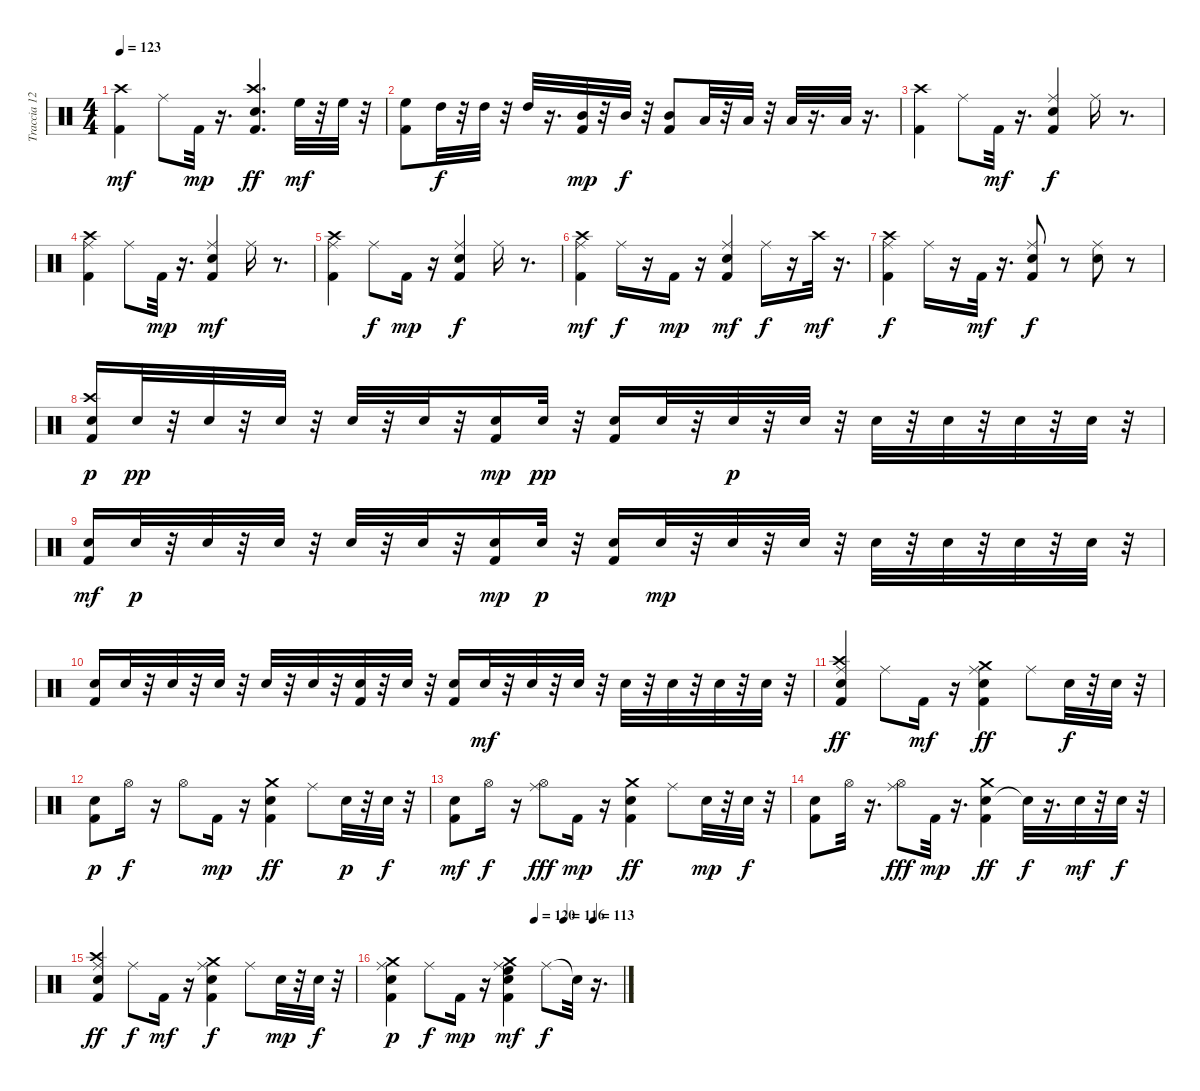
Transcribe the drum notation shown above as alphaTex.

\track ("Traccia 12-13-14-15-16-17-18" "Traccia 12") {instrument percussion}
\staff {score}
\articulation defaults
\ts (4 4)
\tempo 123
\clef neutral
\ks c
("Kick (hit) 2" "Crash high (hit)").4{dy mf} "Ride (middle)".8 "Kick (hit) 2".32{dy mp} r.16{d} ("Electric Snare (hit)" "Kick (hit) 2" "Crash high (hit)").4{d dy ff} "High Floor Tom (hit)".32{dy mf} r.32 "High Floor Tom (hit)".32 r.32 |
("High Floor Tom (hit)" "Kick (hit) 2").8 "High Tom (hit)".32{dy f} r.32 "High Tom (hit)".32 r.32 "High Tom (hit)".32 r.16{d} ("Mid Tom (hit)" "Kick (hit) 2").32{dy mp} r.32 "Mid Tom (hit)".32{dy f} r.32 ("Mid Tom (hit)" "Kick (hit) 2").8 "Low Tom (hit)".32 r.32 "Low Tom (hit)".32 r.32 "Low Tom (hit)".32 r.16{d} "Low Tom (hit)".32 r.16{d} |
("Kick (hit) 2" "Crash high (hit)").4 "Ride (middle)".8 "Kick (hit) 2".32{dy mf} r.16{d} ("Electric Snare (hit)" "Kick (hit) 2" "Ride (middle)").4{dy f} "Ride (middle)".16 r.8{d} |
("Kick (hit) 2" "Ride (middle)" "Crash high (hit)").4 "Ride (middle)".8 "Kick (hit) 2".32{dy mp} r.16{d} ("Electric Snare (hit)" "Kick (hit) 2" "Ride (middle)").4{dy mf} "Ride (middle)".16 r.8{d} |
("Kick (hit) 2" "Ride (middle)" "Crash high (hit)").4 "Ride (middle)".8{dy f} "Kick (hit) 2".16{dy mp} r.16 ("Electric Snare (hit)" "Kick (hit) 2" "Ride (middle)").4{dy f} "Ride (middle)".16 r.8{d} |
("Kick (hit) 2" "Ride (middle)" "Crash high (hit)").4{dy mf} "Ride (middle)".16{dy f} r.16 "Kick (hit) 2".16{dy mp} r.16 ("Electric Snare (hit)" "Kick (hit) 2" "Ride (middle)").4{dy mf} "Ride (middle)".16{dy f} r.16 "Crash high (hit)".32{dy mf} r.16{d} |
("Kick (hit) 2" "Ride (middle)" "Crash high (hit)").4{dy f} "Ride (middle)".16 r.16 "Kick (hit) 2".32{dy mf} r.16{d} ("Electric Snare (hit)" "Kick (hit) 2" "Ride (middle)").8{dy f} r.8 ("Electric Snare (hit)" "Ride (middle)").8 r.8 |
("Electric Snare (hit)" "Kick (hit) 2" "Crash high (hit)").16{dy p} "Electric Snare (hit)".32{dy pp} r.32 "Electric Snare (hit)".32 r.32 "Electric Snare (hit)".32 r.32 "Electric Snare (hit)".32 r.32 "Electric Snare (hit)".32 r.32 ("Electric Snare (hit)" "Kick (hit) 2").16{dy mp} "Electric Snare (hit)".32{dy pp} r.32 ("Electric Snare (hit)" "Kick (hit) 2").16 "Electric Snare (hit)".32 r.32 "Electric Snare (hit)".32{dy p} r.32 "Electric Snare (hit)".32 r.32 "Electric Snare (hit)".32 r.32 "Electric Snare (hit)".32 r.32 "Electric Snare (hit)".32 r.32 "Electric Snare (hit)".32 r.32 |
("Electric Snare (hit)" "Kick (hit) 2").16{dy mf} "Electric Snare (hit)".32{dy p} r.32 "Electric Snare (hit)".32 r.32 "Electric Snare (hit)".32 r.32 "Electric Snare (hit)".32 r.32 "Electric Snare (hit)".32 r.32 ("Electric Snare (hit)" "Kick (hit) 2").16{dy mp} "Electric Snare (hit)".32{dy p} r.32 ("Electric Snare (hit)" "Kick (hit) 2").16 "Electric Snare (hit)".32{dy mp} r.32 "Electric Snare (hit)".32 r.32 "Electric Snare (hit)".32 r.32 "Electric Snare (hit)".32 r.32 "Electric Snare (hit)".32 r.32 "Electric Snare (hit)".32 r.32 "Electric Snare (hit)".32 r.32 |
("Electric Snare (hit)" "Kick (hit) 2").16 "Electric Snare (hit)".32 r.32 "Electric Snare (hit)".32 r.32 "Electric Snare (hit)".32 r.32 "Electric Snare (hit)".32 r.32 "Electric Snare (hit)".32 r.32 ("Electric Snare (hit)" "Kick (hit) 2").32 r.32 "Electric Snare (hit)".32 r.32 ("Electric Snare (hit)" "Kick (hit) 2").16 "Electric Snare (hit)".32{dy mf} r.32 "Electric Snare (hit)".32 r.32 "Electric Snare (hit)".32 r.32 "Electric Snare (hit)".32 r.32 "Electric Snare (hit)".32 r.32 "Electric Snare (hit)".32 r.32 "Electric Snare (hit)".32 r.32 |
("Electric Snare (hit)" "Kick (hit) 2" "Ride (middle)" "Crash high (hit)").4{dy ff} "Ride (middle)".8 "Kick (hit) 2".16{dy mf} r.16 ("Electric Snare (hit)" "Kick (hit) 2" "Ride (middle)" "Crash medium (hit)").4{dy ff} "Ride (middle)".8 "Electric Snare (hit)".32{dy f} r.32 "Electric Snare (hit)".32 r.32 |
("Electric Snare (hit)" "Kick (hit) 2").8{dy p} "Hi-Hat (open)".16{dy f} r.16 "Hi-Hat (open)".8 "Kick (hit) 2".16{dy mp} r.16 ("Electric Snare (hit)" "Kick (hit) 2" "Crash medium (hit)").4{dy ff} "Ride (middle)".8 "Electric Snare (hit)".32{dy p} r.32 "Electric Snare (hit)".32{dy f} r.32 |
("Electric Snare (hit)" "Kick (hit) 2").8{dy mf} "Hi-Hat (open)".16{dy f} r.16 ("Hi-Hat (open)" "Ride (middle)").8{dy fff} "Kick (hit) 2".16{dy mp} r.16 ("Electric Snare (hit)" "Kick (hit) 2" "Crash medium (hit)").4{dy ff} "Ride (middle)".8 "Electric Snare (hit)".32{dy mp} r.32 "Electric Snare (hit)".32{dy f} r.32 |
("Electric Snare (hit)" "Kick (hit) 2").8 "Hi-Hat (open)".32 r.16{d} ("Hi-Hat (open)" "Ride (middle)").8{dy fff} "Kick (hit) 2".32{dy mp} r.16{d} ("Electric Snare (hit)" "Kick (hit) 2" "Crash medium (hit)").4{dy ff} "Snare (hit)"{t}.32{dy f} r.16{d} "Electric Snare (hit)".32{dy mf} r.32 "Electric Snare (hit)".32{dy f} r.32 |
("Electric Snare (hit)" "Kick (hit) 2" "Ride (middle)" "Crash high (hit)").4{dy ff} "Ride (middle)".8{dy f} "Kick (hit) 2".16{dy mf} r.16 ("Electric Snare (hit)" "Kick (hit) 2" "Ride (middle)" "Crash medium (hit)").4{dy f} "Ride (middle)".8 "Electric Snare (hit)".32{dy mp} r.32 "Electric Snare (hit)".32{dy f} r.32 |
\tempo (120 0.625)
\tempo (116 0.75)
\tempo (113 0.875)
("Electric Snare (hit)" "Kick (hit) 2" "Ride (middle)" "Crash medium (hit)").4{dy p} "Ride (middle)".8{dy f} "Kick (hit) 2".16{dy mp} r.16 ("High Floor Tom (hit)" "Electric Snare (hit)" "Kick (hit) 2" "Ride (middle)" "Crash medium (hit)").4{dy mf} "Ride (middle)".8{dy f} "Snare (hit)"{t}.32 r.16{d}
